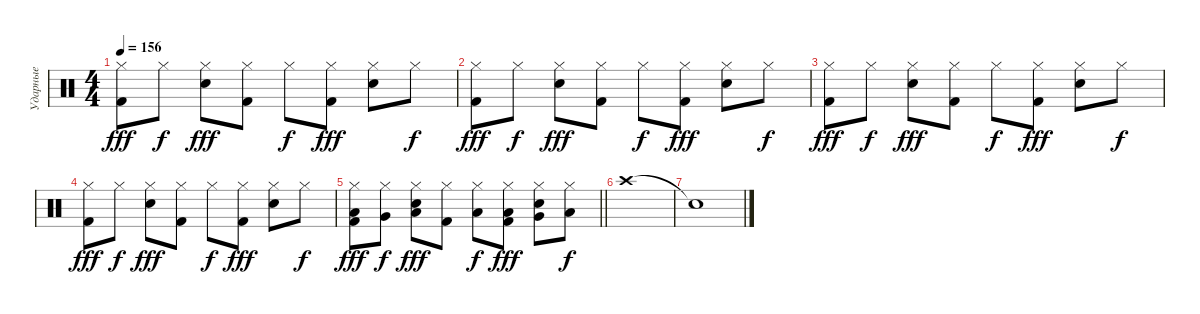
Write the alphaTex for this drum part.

\track ("Ударные" "Ударные") {instrument percussion}
\staff {score}
\articulation defaults
\ts (4 4)
\tempo 156
\clef neutral
\ks c
("Hi-Hat (closed)" "Kick (hit) 2").8{dy fff} "Hi-Hat (closed)".8{dy f} ("Hi-Hat (closed)" "Snare (hit) 2").8{dy fff} ("Hi-Hat (closed)" "Kick (hit) 2").8 "Hi-Hat (closed)".8{dy f} ("Hi-Hat (closed)" "Kick (hit) 2").8{dy fff} ("Hi-Hat (closed)" "Snare (hit) 2").8 "Hi-Hat (closed)".8{dy f} |
("Hi-Hat (closed)" "Kick (hit) 2").8{dy fff} "Hi-Hat (closed)".8{dy f} ("Hi-Hat (closed)" "Snare (hit) 2").8{dy fff} ("Hi-Hat (closed)" "Kick (hit) 2").8 "Hi-Hat (closed)".8{dy f} ("Hi-Hat (closed)" "Kick (hit) 2").8{dy fff} ("Hi-Hat (closed)" "Snare (hit) 2").8 "Hi-Hat (closed)".8{dy f} |
("Hi-Hat (closed)" "Kick (hit) 2").8{dy fff} "Hi-Hat (closed)".8{dy f} ("Hi-Hat (closed)" "Snare (hit) 2").8{dy fff} ("Hi-Hat (closed)" "Kick (hit) 2").8 "Hi-Hat (closed)".8{dy f} ("Hi-Hat (closed)" "Kick (hit) 2").8{dy fff} ("Hi-Hat (closed)" "Snare (hit) 2").8 "Hi-Hat (closed)".8{dy f} |
("Hi-Hat (closed)" "Kick (hit) 2").8{dy fff} "Hi-Hat (closed)".8{dy f} ("Hi-Hat (closed)" "Snare (hit) 2").8{dy fff} ("Hi-Hat (closed)" "Kick (hit) 2").8 "Hi-Hat (closed)".8{dy f} ("Hi-Hat (closed)" "Kick (hit) 2").8{dy fff} ("Hi-Hat (closed)" "Snare (hit) 2").8 "Hi-Hat (closed)".8{dy f} |
\barLineRight lightlight
("Hi-Hat (closed)" "Kick (hit) 2" "Low Floor Tom (hit)").8{dy fff} ("Hi-Hat (closed)" "Very Low Tom (hit)").8{dy f} ("Hi-Hat (closed)" "Snare (hit) 2" "Low Tom (hit)").8{dy fff} ("Hi-Hat (closed)" "Kick (hit) 2").8 ("Hi-Hat (closed)" "Low Floor Tom (hit)").8{dy f} ("Hi-Hat (closed)" "Kick (hit) 2" "Low Floor Tom (hit)").8{dy fff} ("Hi-Hat (closed)" "Snare (hit) 2" "Very Low Tom (hit)").8 ("Hi-Hat (closed)" "Low Tom (hit)").8{dy f} |
"Crash high (hit)".1 |
"Snare (hit)"{t}.1
